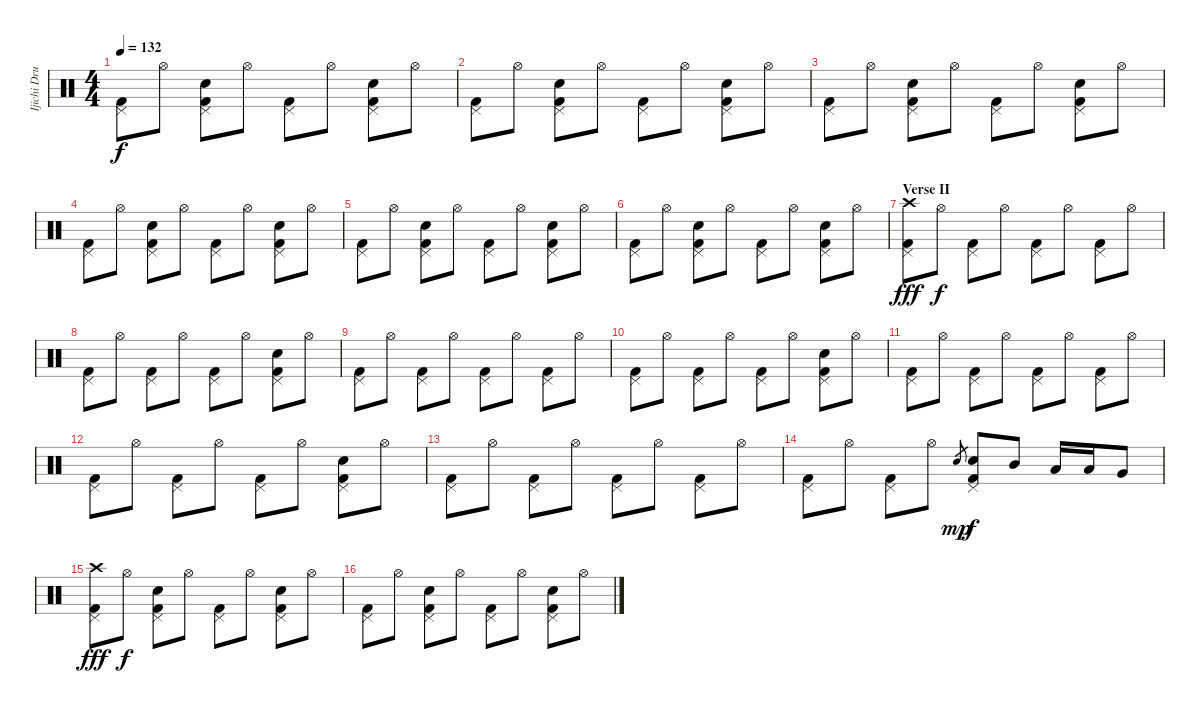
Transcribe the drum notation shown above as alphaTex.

\track ("Ijichi Drums" "Ijichi Dru") {instrument percussion}
\staff {score}
\articulation defaults
\ts (4 4)
\tempo 132
\clef neutral
\ks c
("Pedal Hi-Hat (hit)" "Kick (hit) 2").8{dy f} "Hi-Hat (open)".8 ("Pedal Hi-Hat (hit)" "Snare (hit) 2" "Kick (hit) 2").8 "Hi-Hat (open)".8 ("Pedal Hi-Hat (hit)" "Kick (hit) 2").8 "Hi-Hat (open)".8 ("Pedal Hi-Hat (hit)" "Snare (hit) 2" "Kick (hit) 2").8 "Hi-Hat (open)".8 |
("Pedal Hi-Hat (hit)" "Kick (hit) 2").8 "Hi-Hat (open)".8 ("Pedal Hi-Hat (hit)" "Snare (hit) 2" "Kick (hit) 2").8 "Hi-Hat (open)".8 ("Pedal Hi-Hat (hit)" "Kick (hit) 2").8 "Hi-Hat (open)".8 ("Pedal Hi-Hat (hit)" "Snare (hit) 2" "Kick (hit) 2").8 "Hi-Hat (open)".8 |
("Pedal Hi-Hat (hit)" "Kick (hit) 2").8 "Hi-Hat (open)".8 ("Pedal Hi-Hat (hit)" "Snare (hit) 2" "Kick (hit) 2").8 "Hi-Hat (open)".8 ("Pedal Hi-Hat (hit)" "Kick (hit) 2").8 "Hi-Hat (open)".8 ("Pedal Hi-Hat (hit)" "Snare (hit) 2" "Kick (hit) 2").8 "Hi-Hat (open)".8 |
("Pedal Hi-Hat (hit)" "Kick (hit) 2").8 "Hi-Hat (open)".8 ("Pedal Hi-Hat (hit)" "Snare (hit) 2" "Kick (hit) 2").8 "Hi-Hat (open)".8 ("Pedal Hi-Hat (hit)" "Kick (hit) 2").8 "Hi-Hat (open)".8 ("Pedal Hi-Hat (hit)" "Snare (hit) 2" "Kick (hit) 2").8 "Hi-Hat (open)".8 |
("Pedal Hi-Hat (hit)" "Kick (hit) 2").8 "Hi-Hat (open)".8 ("Pedal Hi-Hat (hit)" "Snare (hit) 2" "Kick (hit) 2").8 "Hi-Hat (open)".8 ("Pedal Hi-Hat (hit)" "Kick (hit) 2").8 "Hi-Hat (open)".8 ("Pedal Hi-Hat (hit)" "Snare (hit) 2" "Kick (hit) 2").8 "Hi-Hat (open)".8 |
("Pedal Hi-Hat (hit)" "Kick (hit) 2").8 "Hi-Hat (open)".8 ("Pedal Hi-Hat (hit)" "Snare (hit) 2" "Kick (hit) 2").8 "Hi-Hat (open)".8 ("Pedal Hi-Hat (hit)" "Kick (hit) 2").8 "Hi-Hat (open)".8 ("Pedal Hi-Hat (hit)" "Snare (hit) 2" "Kick (hit) 2").8 "Hi-Hat (open)".8 |
\section ("" "Verse II")
("Pedal Hi-Hat (hit)" "Crash high (hit)" "Kick (hit) 2").8{dy fff} "Hi-Hat (open)".8{dy f} ("Pedal Hi-Hat (hit)" "Kick (hit) 2").8 "Hi-Hat (open)".8 ("Pedal Hi-Hat (hit)" "Kick (hit) 2").8 "Hi-Hat (open)".8 ("Pedal Hi-Hat (hit)" "Kick (hit) 2").8 "Hi-Hat (open)".8 |
("Pedal Hi-Hat (hit)" "Kick (hit) 2").8 "Hi-Hat (open)".8 ("Pedal Hi-Hat (hit)" "Kick (hit) 2").8 "Hi-Hat (open)".8 ("Pedal Hi-Hat (hit)" "Kick (hit) 2").8 "Hi-Hat (open)".8 ("Pedal Hi-Hat (hit)" "Snare (hit) 2" "Kick (hit) 2").8 "Hi-Hat (open)".8 |
("Pedal Hi-Hat (hit)" "Kick (hit) 2").8 "Hi-Hat (open)".8 ("Pedal Hi-Hat (hit)" "Kick (hit) 2").8 "Hi-Hat (open)".8 ("Pedal Hi-Hat (hit)" "Kick (hit) 2").8 "Hi-Hat (open)".8 ("Pedal Hi-Hat (hit)" "Kick (hit) 2").8 "Hi-Hat (open)".8 |
("Pedal Hi-Hat (hit)" "Kick (hit) 2").8 "Hi-Hat (open)".8 ("Pedal Hi-Hat (hit)" "Kick (hit) 2").8 "Hi-Hat (open)".8 ("Pedal Hi-Hat (hit)" "Kick (hit) 2").8 "Hi-Hat (open)".8 ("Pedal Hi-Hat (hit)" "Snare (hit) 2" "Kick (hit) 2").8 "Hi-Hat (open)".8 |
("Pedal Hi-Hat (hit)" "Kick (hit) 2").8 "Hi-Hat (open)".8 ("Pedal Hi-Hat (hit)" "Kick (hit) 2").8 "Hi-Hat (open)".8 ("Pedal Hi-Hat (hit)" "Kick (hit) 2").8 "Hi-Hat (open)".8 ("Pedal Hi-Hat (hit)" "Kick (hit) 2").8 "Hi-Hat (open)".8 |
("Pedal Hi-Hat (hit)" "Kick (hit) 2").8 "Hi-Hat (open)".8 ("Pedal Hi-Hat (hit)" "Kick (hit) 2").8 "Hi-Hat (open)".8 ("Pedal Hi-Hat (hit)" "Kick (hit) 2").8 "Hi-Hat (open)".8 ("Pedal Hi-Hat (hit)" "Snare (hit) 2" "Kick (hit) 2").8 "Hi-Hat (open)".8 |
("Pedal Hi-Hat (hit)" "Kick (hit) 2").8 "Hi-Hat (open)".8 ("Pedal Hi-Hat (hit)" "Kick (hit) 2").8 "Hi-Hat (open)".8 ("Pedal Hi-Hat (hit)" "Kick (hit) 2").8 "Hi-Hat (open)".8 ("Pedal Hi-Hat (hit)" "Kick (hit) 2").8 "Hi-Hat (open)".8 |
("Pedal Hi-Hat (hit)" "Kick (hit) 2").8 "Hi-Hat (open)".8 ("Pedal Hi-Hat (hit)" "Kick (hit) 2").8 "Hi-Hat (open)".8 "Electric Snare (hit)".8{gr dy mp} ("Pedal Hi-Hat (hit)" "Electric Snare (hit)" "Kick (hit) 2").8{dy f} "Mid Tom (hit)".8 "Low Tom (hit)".16 "Low Tom (hit)".16 "Very Low Tom (hit)".8 |
("Pedal Hi-Hat (hit)" "Crash high (hit)" "Kick (hit) 2").8{dy fff} "Hi-Hat (open)".8{dy f} ("Pedal Hi-Hat (hit)" "Snare (hit) 2" "Kick (hit) 2").8 "Hi-Hat (open)".8 ("Pedal Hi-Hat (hit)" "Kick (hit) 2").8 "Hi-Hat (open)".8 ("Pedal Hi-Hat (hit)" "Snare (hit) 2" "Kick (hit) 2").8 "Hi-Hat (open)".8 |
("Pedal Hi-Hat (hit)" "Kick (hit) 2").8 "Hi-Hat (open)".8 ("Pedal Hi-Hat (hit)" "Snare (hit) 2" "Kick (hit) 2").8 "Hi-Hat (open)".8 ("Pedal Hi-Hat (hit)" "Kick (hit) 2").8 "Hi-Hat (open)".8 ("Pedal Hi-Hat (hit)" "Snare (hit) 2" "Kick (hit) 2").8 "Hi-Hat (open)".8
